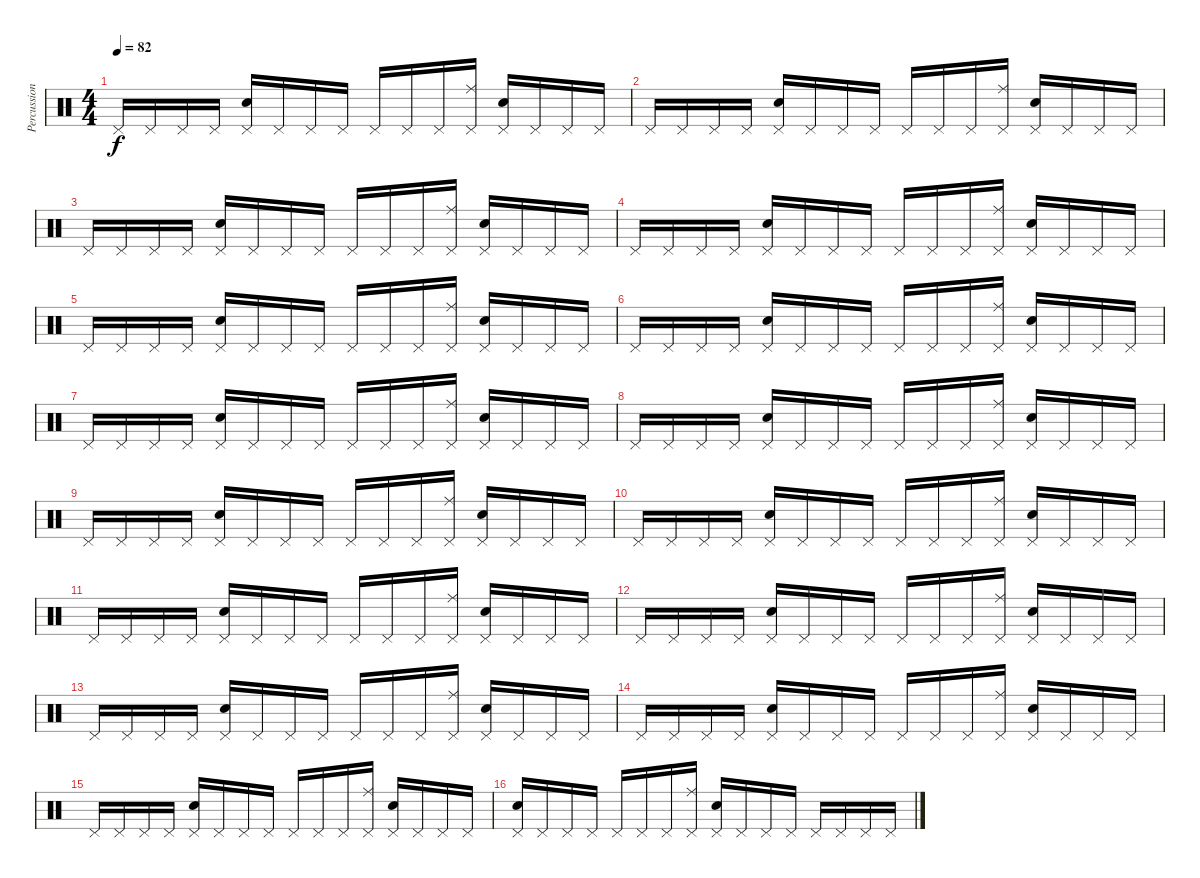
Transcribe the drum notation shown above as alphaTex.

\track ("Percussions" "Percussion") {instrument percussion}
\staff {score}
\articulation defaults
\ts (4 4)
\tempo 82
\clef neutral
\ks c "Pedal Hi-Hat (hit)".16{dy f} "Pedal Hi-Hat (hit)".16 "Pedal Hi-Hat (hit)".16 "Pedal Hi-Hat (hit)".16
("Pedal Hi-Hat (hit)" "Hand Clap (hit)").16 "Pedal Hi-Hat (hit)".16 "Pedal Hi-Hat (hit)".16 "Pedal Hi-Hat (hit)".16 "Pedal Hi-Hat (hit)".16 "Pedal Hi-Hat (hit)".16 "Pedal Hi-Hat (hit)".16 ("Pedal Hi-Hat (hit)" "Ride (middle)").16 ("Pedal Hi-Hat (hit)" "Hand Clap (hit)").16 "Pedal Hi-Hat (hit)".16 "Pedal Hi-Hat (hit)".16 "Pedal Hi-Hat (hit)".16 |
"Pedal Hi-Hat (hit)".16 "Pedal Hi-Hat (hit)".16 "Pedal Hi-Hat (hit)".16 "Pedal Hi-Hat (hit)".16 ("Pedal Hi-Hat (hit)" "Hand Clap (hit)").16 "Pedal Hi-Hat (hit)".16 "Pedal Hi-Hat (hit)".16 "Pedal Hi-Hat (hit)".16 "Pedal Hi-Hat (hit)".16 "Pedal Hi-Hat (hit)".16 "Pedal Hi-Hat (hit)".16 ("Pedal Hi-Hat (hit)" "Ride (middle)").16 ("Pedal Hi-Hat (hit)" "Hand Clap (hit)").16 "Pedal Hi-Hat (hit)".16 "Pedal Hi-Hat (hit)".16 "Pedal Hi-Hat (hit)".16 |
"Pedal Hi-Hat (hit)".16 "Pedal Hi-Hat (hit)".16 "Pedal Hi-Hat (hit)".16 "Pedal Hi-Hat (hit)".16 ("Pedal Hi-Hat (hit)" "Hand Clap (hit)").16 "Pedal Hi-Hat (hit)".16 "Pedal Hi-Hat (hit)".16 "Pedal Hi-Hat (hit)".16 "Pedal Hi-Hat (hit)".16 "Pedal Hi-Hat (hit)".16 "Pedal Hi-Hat (hit)".16 ("Pedal Hi-Hat (hit)" "Ride (middle)").16 ("Pedal Hi-Hat (hit)" "Hand Clap (hit)").16 "Pedal Hi-Hat (hit)".16 "Pedal Hi-Hat (hit)".16 "Pedal Hi-Hat (hit)".16 |
"Pedal Hi-Hat (hit)".16 "Pedal Hi-Hat (hit)".16 "Pedal Hi-Hat (hit)".16 "Pedal Hi-Hat (hit)".16 ("Pedal Hi-Hat (hit)" "Hand Clap (hit)").16 "Pedal Hi-Hat (hit)".16 "Pedal Hi-Hat (hit)".16 "Pedal Hi-Hat (hit)".16 "Pedal Hi-Hat (hit)".16 "Pedal Hi-Hat (hit)".16 "Pedal Hi-Hat (hit)".16 ("Pedal Hi-Hat (hit)" "Ride (middle)").16 ("Pedal Hi-Hat (hit)" "Hand Clap (hit)").16 "Pedal Hi-Hat (hit)".16 "Pedal Hi-Hat (hit)".16 "Pedal Hi-Hat (hit)".16 |
"Pedal Hi-Hat (hit)".16 "Pedal Hi-Hat (hit)".16 "Pedal Hi-Hat (hit)".16 "Pedal Hi-Hat (hit)".16 ("Pedal Hi-Hat (hit)" "Hand Clap (hit)").16 "Pedal Hi-Hat (hit)".16 "Pedal Hi-Hat (hit)".16 "Pedal Hi-Hat (hit)".16 "Pedal Hi-Hat (hit)".16 "Pedal Hi-Hat (hit)".16 "Pedal Hi-Hat (hit)".16 ("Pedal Hi-Hat (hit)" "Ride (middle)").16 ("Pedal Hi-Hat (hit)" "Hand Clap (hit)").16 "Pedal Hi-Hat (hit)".16 "Pedal Hi-Hat (hit)".16 "Pedal Hi-Hat (hit)".16 |
"Pedal Hi-Hat (hit)".16 "Pedal Hi-Hat (hit)".16 "Pedal Hi-Hat (hit)".16 "Pedal Hi-Hat (hit)".16 ("Pedal Hi-Hat (hit)" "Hand Clap (hit)").16 "Pedal Hi-Hat (hit)".16 "Pedal Hi-Hat (hit)".16 "Pedal Hi-Hat (hit)".16 "Pedal Hi-Hat (hit)".16 "Pedal Hi-Hat (hit)".16 "Pedal Hi-Hat (hit)".16 ("Pedal Hi-Hat (hit)" "Ride (middle)").16 ("Pedal Hi-Hat (hit)" "Hand Clap (hit)").16 "Pedal Hi-Hat (hit)".16 "Pedal Hi-Hat (hit)".16 "Pedal Hi-Hat (hit)".16 |
"Pedal Hi-Hat (hit)".16 "Pedal Hi-Hat (hit)".16 "Pedal Hi-Hat (hit)".16 "Pedal Hi-Hat (hit)".16 ("Pedal Hi-Hat (hit)" "Hand Clap (hit)").16 "Pedal Hi-Hat (hit)".16 "Pedal Hi-Hat (hit)".16 "Pedal Hi-Hat (hit)".16 "Pedal Hi-Hat (hit)".16 "Pedal Hi-Hat (hit)".16 "Pedal Hi-Hat (hit)".16 ("Pedal Hi-Hat (hit)" "Ride (middle)").16 ("Pedal Hi-Hat (hit)" "Hand Clap (hit)").16 "Pedal Hi-Hat (hit)".16 "Pedal Hi-Hat (hit)".16 "Pedal Hi-Hat (hit)".16 |
"Pedal Hi-Hat (hit)".16 "Pedal Hi-Hat (hit)".16 "Pedal Hi-Hat (hit)".16 "Pedal Hi-Hat (hit)".16 ("Pedal Hi-Hat (hit)" "Hand Clap (hit)").16 "Pedal Hi-Hat (hit)".16 "Pedal Hi-Hat (hit)".16 "Pedal Hi-Hat (hit)".16 "Pedal Hi-Hat (hit)".16 "Pedal Hi-Hat (hit)".16 "Pedal Hi-Hat (hit)".16 ("Pedal Hi-Hat (hit)" "Ride (middle)").16 ("Pedal Hi-Hat (hit)" "Hand Clap (hit)").16 "Pedal Hi-Hat (hit)".16 "Pedal Hi-Hat (hit)".16 "Pedal Hi-Hat (hit)".16 |
"Pedal Hi-Hat (hit)".16 "Pedal Hi-Hat (hit)".16 "Pedal Hi-Hat (hit)".16 "Pedal Hi-Hat (hit)".16 ("Pedal Hi-Hat (hit)" "Hand Clap (hit)").16 "Pedal Hi-Hat (hit)".16 "Pedal Hi-Hat (hit)".16 "Pedal Hi-Hat (hit)".16 "Pedal Hi-Hat (hit)".16 "Pedal Hi-Hat (hit)".16 "Pedal Hi-Hat (hit)".16 ("Pedal Hi-Hat (hit)" "Ride (middle)").16 ("Pedal Hi-Hat (hit)" "Hand Clap (hit)").16 "Pedal Hi-Hat (hit)".16 "Pedal Hi-Hat (hit)".16 "Pedal Hi-Hat (hit)".16 |
"Pedal Hi-Hat (hit)".16 "Pedal Hi-Hat (hit)".16 "Pedal Hi-Hat (hit)".16 "Pedal Hi-Hat (hit)".16 ("Pedal Hi-Hat (hit)" "Hand Clap (hit)").16 "Pedal Hi-Hat (hit)".16 "Pedal Hi-Hat (hit)".16 "Pedal Hi-Hat (hit)".16 "Pedal Hi-Hat (hit)".16 "Pedal Hi-Hat (hit)".16 "Pedal Hi-Hat (hit)".16 ("Pedal Hi-Hat (hit)" "Ride (middle)").16 ("Pedal Hi-Hat (hit)" "Hand Clap (hit)").16 "Pedal Hi-Hat (hit)".16 "Pedal Hi-Hat (hit)".16 "Pedal Hi-Hat (hit)".16 |
"Pedal Hi-Hat (hit)".16 "Pedal Hi-Hat (hit)".16 "Pedal Hi-Hat (hit)".16 "Pedal Hi-Hat (hit)".16 ("Pedal Hi-Hat (hit)" "Hand Clap (hit)").16 "Pedal Hi-Hat (hit)".16 "Pedal Hi-Hat (hit)".16 "Pedal Hi-Hat (hit)".16 "Pedal Hi-Hat (hit)".16 "Pedal Hi-Hat (hit)".16 "Pedal Hi-Hat (hit)".16 ("Pedal Hi-Hat (hit)" "Ride (middle)").16 ("Pedal Hi-Hat (hit)" "Hand Clap (hit)").16 "Pedal Hi-Hat (hit)".16 "Pedal Hi-Hat (hit)".16 "Pedal Hi-Hat (hit)".16 |
"Pedal Hi-Hat (hit)".16 "Pedal Hi-Hat (hit)".16 "Pedal Hi-Hat (hit)".16 "Pedal Hi-Hat (hit)".16 ("Pedal Hi-Hat (hit)" "Hand Clap (hit)").16 "Pedal Hi-Hat (hit)".16 "Pedal Hi-Hat (hit)".16 "Pedal Hi-Hat (hit)".16 "Pedal Hi-Hat (hit)".16 "Pedal Hi-Hat (hit)".16 "Pedal Hi-Hat (hit)".16 ("Pedal Hi-Hat (hit)" "Ride (middle)").16 ("Pedal Hi-Hat (hit)" "Hand Clap (hit)").16 "Pedal Hi-Hat (hit)".16 "Pedal Hi-Hat (hit)".16 "Pedal Hi-Hat (hit)".16 |
"Pedal Hi-Hat (hit)".16 "Pedal Hi-Hat (hit)".16 "Pedal Hi-Hat (hit)".16 "Pedal Hi-Hat (hit)".16 ("Pedal Hi-Hat (hit)" "Hand Clap (hit)").16 "Pedal Hi-Hat (hit)".16 "Pedal Hi-Hat (hit)".16 "Pedal Hi-Hat (hit)".16 "Pedal Hi-Hat (hit)".16 "Pedal Hi-Hat (hit)".16 "Pedal Hi-Hat (hit)".16 ("Pedal Hi-Hat (hit)" "Ride (middle)").16 ("Pedal Hi-Hat (hit)" "Hand Clap (hit)").16 "Pedal Hi-Hat (hit)".16 "Pedal Hi-Hat (hit)".16 "Pedal Hi-Hat (hit)".16 |
"Pedal Hi-Hat (hit)".16 "Pedal Hi-Hat (hit)".16 "Pedal Hi-Hat (hit)".16 "Pedal Hi-Hat (hit)".16 ("Pedal Hi-Hat (hit)" "Hand Clap (hit)").16 "Pedal Hi-Hat (hit)".16 "Pedal Hi-Hat (hit)".16 "Pedal Hi-Hat (hit)".16 "Pedal Hi-Hat (hit)".16 "Pedal Hi-Hat (hit)".16 "Pedal Hi-Hat (hit)".16 ("Pedal Hi-Hat (hit)" "Ride (middle)").16 ("Pedal Hi-Hat (hit)" "Hand Clap (hit)").16 "Pedal Hi-Hat (hit)".16 "Pedal Hi-Hat (hit)".16 "Pedal Hi-Hat (hit)".16 |
"Pedal Hi-Hat (hit)".16 "Pedal Hi-Hat (hit)".16 "Pedal Hi-Hat (hit)".16 "Pedal Hi-Hat (hit)".16 ("Pedal Hi-Hat (hit)" "Hand Clap (hit)").16 "Pedal Hi-Hat (hit)".16 "Pedal Hi-Hat (hit)".16 "Pedal Hi-Hat (hit)".16 "Pedal Hi-Hat (hit)".16 "Pedal Hi-Hat (hit)".16 "Pedal Hi-Hat (hit)".16 ("Pedal Hi-Hat (hit)" "Ride (middle)").16 ("Pedal Hi-Hat (hit)" "Hand Clap (hit)").16 "Pedal Hi-Hat (hit)".16 "Pedal Hi-Hat (hit)".16 "Pedal Hi-Hat (hit)".16 |
("Pedal Hi-Hat (hit)" "Hand Clap (hit)").16 "Pedal Hi-Hat (hit)".16 "Pedal Hi-Hat (hit)".16 "Pedal Hi-Hat (hit)".16 "Pedal Hi-Hat (hit)".16 "Pedal Hi-Hat (hit)".16 "Pedal Hi-Hat (hit)".16 ("Pedal Hi-Hat (hit)" "Ride (middle)").16 ("Pedal Hi-Hat (hit)" "Hand Clap (hit)").16 "Pedal Hi-Hat (hit)".16 "Pedal Hi-Hat (hit)".16 "Pedal Hi-Hat (hit)".16 "Pedal Hi-Hat (hit)".16 "Pedal Hi-Hat (hit)".16 "Pedal Hi-Hat (hit)".16 "Pedal Hi-Hat (hit)".16
